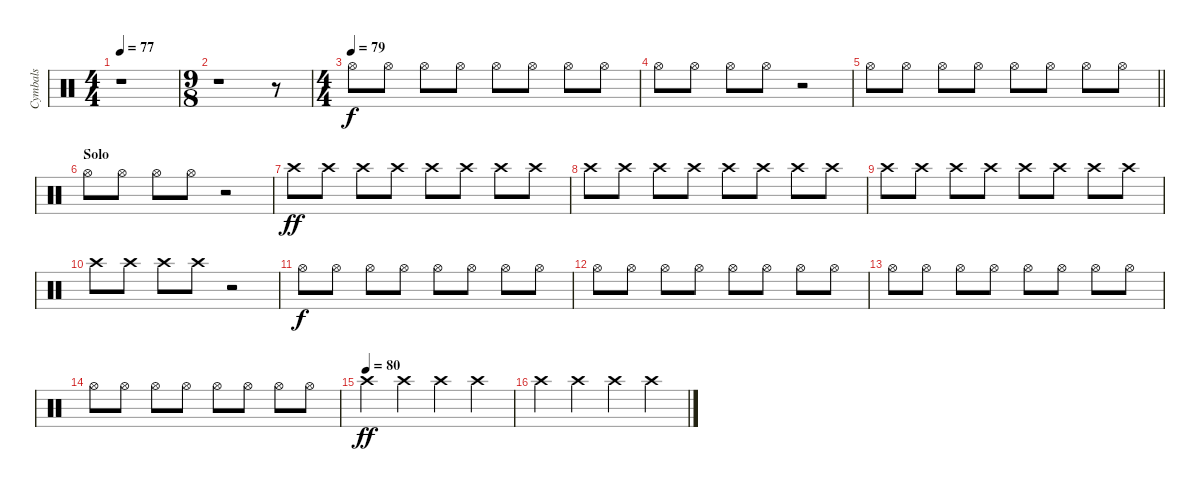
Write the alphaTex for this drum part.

\track ("Cymbals" "Cymbals") {instrument percussion}
\staff {score}
\articulation defaults
\ts (4 4)
\tempo 77
\clef neutral
\ks c
r.1{dy f} |
\ts (9 8)
r.1 r.8 |
\ts (4 4)
\tempo (79)
"Hi-Hat (open)".8 "Hi-Hat (open)".8 "Hi-Hat (open)".8 "Hi-Hat (open)".8 "Hi-Hat (open)".8 "Hi-Hat (open)".8 "Hi-Hat (open)".8 "Hi-Hat (open)".8 |
"Hi-Hat (open)".8 "Hi-Hat (open)".8 "Hi-Hat (open)".8 "Hi-Hat (open)".8 r.2 |
\barLineRight lightlight "Hi-Hat (open)".8 "Hi-Hat (open)".8 "Hi-Hat (open)".8 "Hi-Hat (open)".8 "Hi-Hat (open)".8 "Hi-Hat (open)".8 "Hi-Hat (open)".8 "Hi-Hat (open)".8
|
\section ("" "Solo")
"Hi-Hat (open)".8 "Hi-Hat (open)".8 "Hi-Hat (open)".8 "Hi-Hat (open)".8 r.2 |
"Crash high (hit)".8{dy ff} "Crash high (hit)".8 "Crash high (hit)".8 "Crash high (hit)".8 "Crash high (hit)".8 "Crash high (hit)".8 "Crash high (hit)".8 "Crash high (hit)".8 |
"Crash high (hit)".8 "Crash high (hit)".8 "Crash high (hit)".8 "Crash high (hit)".8 "Crash high (hit)".8 "Crash high (hit)".8 "Crash high (hit)".8 "Crash high (hit)".8 |
"Crash high (hit)".8 "Crash high (hit)".8 "Crash high (hit)".8 "Crash high (hit)".8 "Crash high (hit)".8 "Crash high (hit)".8 "Crash high (hit)".8 "Crash high (hit)".8 |
"Crash high (hit)".8 "Crash high (hit)".8 "Crash high (hit)".8 "Crash high (hit)".8 r.2 |
"Hi-Hat (open)".8{dy f} "Hi-Hat (open)".8 "Hi-Hat (open)".8 "Hi-Hat (open)".8 "Hi-Hat (open)".8 "Hi-Hat (open)".8 "Hi-Hat (open)".8 "Hi-Hat (open)".8 |
"Hi-Hat (open)".8 "Hi-Hat (open)".8 "Hi-Hat (open)".8 "Hi-Hat (open)".8 "Hi-Hat (open)".8 "Hi-Hat (open)".8 "Hi-Hat (open)".8 "Hi-Hat (open)".8 |
"Hi-Hat (open)".8 "Hi-Hat (open)".8 "Hi-Hat (open)".8 "Hi-Hat (open)".8 "Hi-Hat (open)".8 "Hi-Hat (open)".8 "Hi-Hat (open)".8 "Hi-Hat (open)".8 |
"Hi-Hat (open)".8 "Hi-Hat (open)".8 "Hi-Hat (open)".8 "Hi-Hat (open)".8 "Hi-Hat (open)".8 "Hi-Hat (open)".8 "Hi-Hat (open)".8 "Hi-Hat (open)".8 |
\tempo (80)
"Crash high (hit)".4{dy ff} "Crash high (hit)".4 "Crash high (hit)".4 "Crash high (hit)".4 |
"Crash high (hit)".4 "Crash high (hit)".4 "Crash high (hit)".4 "Crash high (hit)".4
